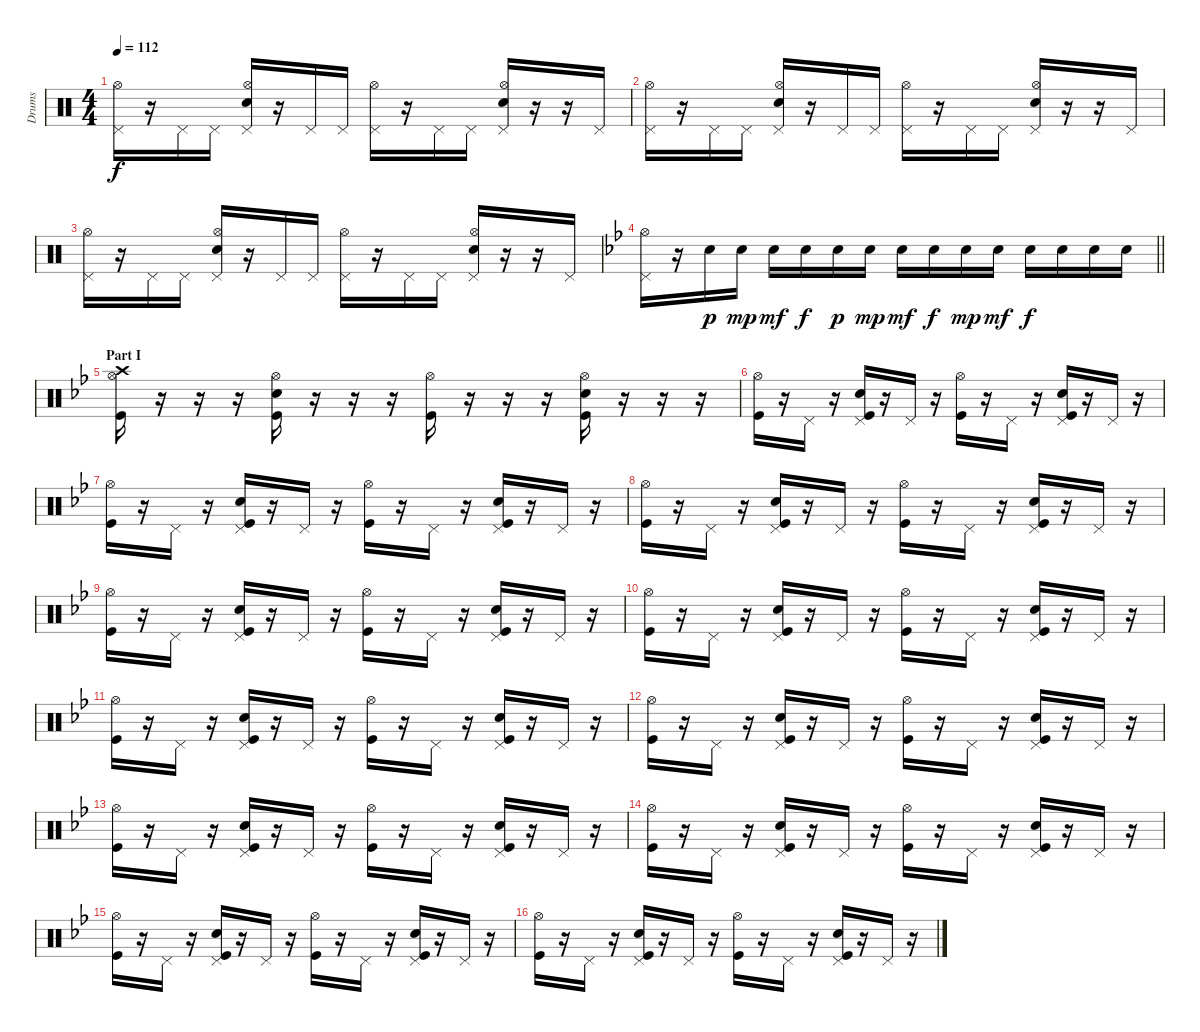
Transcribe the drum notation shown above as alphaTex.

\track ("Drums" "Drums") {instrument percussion}
\staff {score}
\articulation defaults
\ts (4 4)
\tempo 112
\clef neutral
\ks c
("Pedal Hi-Hat (hit)" "Hi-Hat (open)").16{dy f} r.16 "Pedal Hi-Hat (hit)".16 "Pedal Hi-Hat (hit)".16 ("Pedal Hi-Hat (hit)" "Hi-Hat (open)" "Electric Snare (hit)").16 r.16 "Pedal Hi-Hat (hit)".16 "Pedal Hi-Hat (hit)".16 ("Pedal Hi-Hat (hit)" "Hi-Hat (open)").16 r.16 "Pedal Hi-Hat (hit)".16 "Pedal Hi-Hat (hit)".16 ("Pedal Hi-Hat (hit)" "Hi-Hat (open)" "Electric Snare (hit)").16 r.16 r.16 "Pedal Hi-Hat (hit)".16 |
("Pedal Hi-Hat (hit)" "Hi-Hat (open)").16 r.16 "Pedal Hi-Hat (hit)".16 "Pedal Hi-Hat (hit)".16 ("Pedal Hi-Hat (hit)" "Hi-Hat (open)" "Electric Snare (hit)").16 r.16 "Pedal Hi-Hat (hit)".16 "Pedal Hi-Hat (hit)".16 ("Pedal Hi-Hat (hit)" "Hi-Hat (open)").16 r.16 "Pedal Hi-Hat (hit)".16 "Pedal Hi-Hat (hit)".16 ("Pedal Hi-Hat (hit)" "Hi-Hat (open)" "Electric Snare (hit)").16 r.16 r.16 "Pedal Hi-Hat (hit)".16 |
("Pedal Hi-Hat (hit)" "Hi-Hat (open)").16 r.16 "Pedal Hi-Hat (hit)".16 "Pedal Hi-Hat (hit)".16 ("Pedal Hi-Hat (hit)" "Hi-Hat (open)" "Electric Snare (hit)").16 r.16 "Pedal Hi-Hat (hit)".16 "Pedal Hi-Hat (hit)".16 ("Pedal Hi-Hat (hit)" "Hi-Hat (open)").16 r.16 "Pedal Hi-Hat (hit)".16 "Pedal Hi-Hat (hit)".16 ("Pedal Hi-Hat (hit)" "Hi-Hat (open)" "Electric Snare (hit)").16 r.16 r.16 "Pedal Hi-Hat (hit)".16 |
\barLineRight lightlight
\ks bb
("Pedal Hi-Hat (hit)" "Hi-Hat (open)").16 r.16 "Electric Snare (hit)".16{dy p} "Electric Snare (hit)".16{dy mp} "Electric Snare (hit)".16{dy mf} "Electric Snare (hit)".16{dy f} "Electric Snare (hit)".16{dy p} "Electric Snare (hit)".16{dy mp} "Electric Snare (hit)".16{dy mf} "Electric Snare (hit)".16{dy f} "Electric Snare (hit)".16{dy mp} "Electric Snare (hit)".16{dy mf} "Electric Snare (hit)".16{dy f} "Electric Snare (hit)".16 "Electric Snare (hit)".16 "Electric Snare (hit)".16 |
\section ("" "Part I")
("Hi-Hat (open)" "Crash high (hit)" "Kick (hit)").16 r.16 r.16 r.16 ("Hi-Hat (open)" "Electric Snare (hit)" "Kick (hit)").16 r.16 r.16 r.16 ("Hi-Hat (open)" "Kick (hit)").16 r.16 r.16 r.16 ("Hi-Hat (open)" "Electric Snare (hit)" "Kick (hit)").16 r.16 r.16 r.16 |
("Hi-Hat (open)" "Kick (hit)").16 r.16 "Pedal Hi-Hat (hit)".16 r.16 ("Pedal Hi-Hat (hit)" "Electric Snare (hit)" "Kick (hit)").16 r.16 "Pedal Hi-Hat (hit)".16 r.16 ("Hi-Hat (open)" "Kick (hit)").16 r.16 "Pedal Hi-Hat (hit)".16 r.16 ("Pedal Hi-Hat (hit)" "Electric Snare (hit)" "Kick (hit)").16 r.16 "Pedal Hi-Hat (hit)".16 r.16 |
("Hi-Hat (open)" "Kick (hit)").16 r.16 "Pedal Hi-Hat (hit)".16 r.16 ("Pedal Hi-Hat (hit)" "Electric Snare (hit)" "Kick (hit)").16 r.16 "Pedal Hi-Hat (hit)".16 r.16 ("Hi-Hat (open)" "Kick (hit)").16 r.16 "Pedal Hi-Hat (hit)".16 r.16 ("Pedal Hi-Hat (hit)" "Electric Snare (hit)" "Kick (hit)").16 r.16 "Pedal Hi-Hat (hit)".16 r.16 |
("Hi-Hat (open)" "Kick (hit)").16 r.16 "Pedal Hi-Hat (hit)".16 r.16 ("Pedal Hi-Hat (hit)" "Electric Snare (hit)" "Kick (hit)").16 r.16 "Pedal Hi-Hat (hit)".16 r.16 ("Hi-Hat (open)" "Kick (hit)").16 r.16 "Pedal Hi-Hat (hit)".16 r.16 ("Pedal Hi-Hat (hit)" "Electric Snare (hit)" "Kick (hit)").16 r.16 "Pedal Hi-Hat (hit)".16 r.16 |
("Hi-Hat (open)" "Kick (hit)").16 r.16 "Pedal Hi-Hat (hit)".16 r.16 ("Pedal Hi-Hat (hit)" "Electric Snare (hit)" "Kick (hit)").16 r.16 "Pedal Hi-Hat (hit)".16 r.16 ("Hi-Hat (open)" "Kick (hit)").16 r.16 "Pedal Hi-Hat (hit)".16 r.16 ("Pedal Hi-Hat (hit)" "Electric Snare (hit)" "Kick (hit)").16 r.16 "Pedal Hi-Hat (hit)".16 r.16 |
("Hi-Hat (open)" "Kick (hit)").16 r.16 "Pedal Hi-Hat (hit)".16 r.16 ("Pedal Hi-Hat (hit)" "Electric Snare (hit)" "Kick (hit)").16 r.16 "Pedal Hi-Hat (hit)".16 r.16 ("Hi-Hat (open)" "Kick (hit)").16 r.16 "Pedal Hi-Hat (hit)".16 r.16 ("Pedal Hi-Hat (hit)" "Electric Snare (hit)" "Kick (hit)").16 r.16 "Pedal Hi-Hat (hit)".16 r.16 |
("Hi-Hat (open)" "Kick (hit)").16 r.16 "Pedal Hi-Hat (hit)".16 r.16 ("Pedal Hi-Hat (hit)" "Electric Snare (hit)" "Kick (hit)").16 r.16 "Pedal Hi-Hat (hit)".16 r.16 ("Hi-Hat (open)" "Kick (hit)").16 r.16 "Pedal Hi-Hat (hit)".16 r.16 ("Pedal Hi-Hat (hit)" "Electric Snare (hit)" "Kick (hit)").16 r.16 "Pedal Hi-Hat (hit)".16 r.16 |
("Hi-Hat (open)" "Kick (hit)").16 r.16 "Pedal Hi-Hat (hit)".16 r.16 ("Pedal Hi-Hat (hit)" "Electric Snare (hit)" "Kick (hit)").16 r.16 "Pedal Hi-Hat (hit)".16 r.16 ("Hi-Hat (open)" "Kick (hit)").16 r.16 "Pedal Hi-Hat (hit)".16 r.16 ("Pedal Hi-Hat (hit)" "Electric Snare (hit)" "Kick (hit)").16 r.16 "Pedal Hi-Hat (hit)".16 r.16 |
("Hi-Hat (open)" "Kick (hit)").16 r.16 "Pedal Hi-Hat (hit)".16 r.16 ("Pedal Hi-Hat (hit)" "Electric Snare (hit)" "Kick (hit)").16 r.16 "Pedal Hi-Hat (hit)".16 r.16 ("Hi-Hat (open)" "Kick (hit)").16 r.16 "Pedal Hi-Hat (hit)".16 r.16 ("Pedal Hi-Hat (hit)" "Electric Snare (hit)" "Kick (hit)").16 r.16 "Pedal Hi-Hat (hit)".16 r.16 |
("Hi-Hat (open)" "Kick (hit)").16 r.16 "Pedal Hi-Hat (hit)".16 r.16 ("Pedal Hi-Hat (hit)" "Electric Snare (hit)" "Kick (hit)").16 r.16 "Pedal Hi-Hat (hit)".16 r.16 ("Hi-Hat (open)" "Kick (hit)").16 r.16 "Pedal Hi-Hat (hit)".16 r.16 ("Pedal Hi-Hat (hit)" "Electric Snare (hit)" "Kick (hit)").16 r.16 "Pedal Hi-Hat (hit)".16 r.16 |
("Hi-Hat (open)" "Kick (hit)").16 r.16 "Pedal Hi-Hat (hit)".16 r.16 ("Pedal Hi-Hat (hit)" "Electric Snare (hit)" "Kick (hit)").16 r.16 "Pedal Hi-Hat (hit)".16 r.16 ("Hi-Hat (open)" "Kick (hit)").16 r.16 "Pedal Hi-Hat (hit)".16 r.16 ("Pedal Hi-Hat (hit)" "Electric Snare (hit)" "Kick (hit)").16 r.16 "Pedal Hi-Hat (hit)".16 r.16 |
("Hi-Hat (open)" "Kick (hit)").16 r.16 "Pedal Hi-Hat (hit)".16 r.16 ("Pedal Hi-Hat (hit)" "Electric Snare (hit)" "Kick (hit)").16 r.16 "Pedal Hi-Hat (hit)".16 r.16 ("Hi-Hat (open)" "Kick (hit)").16 r.16 "Pedal Hi-Hat (hit)".16 r.16 ("Pedal Hi-Hat (hit)" "Electric Snare (hit)" "Kick (hit)").16 r.16 "Pedal Hi-Hat (hit)".16 r.16
